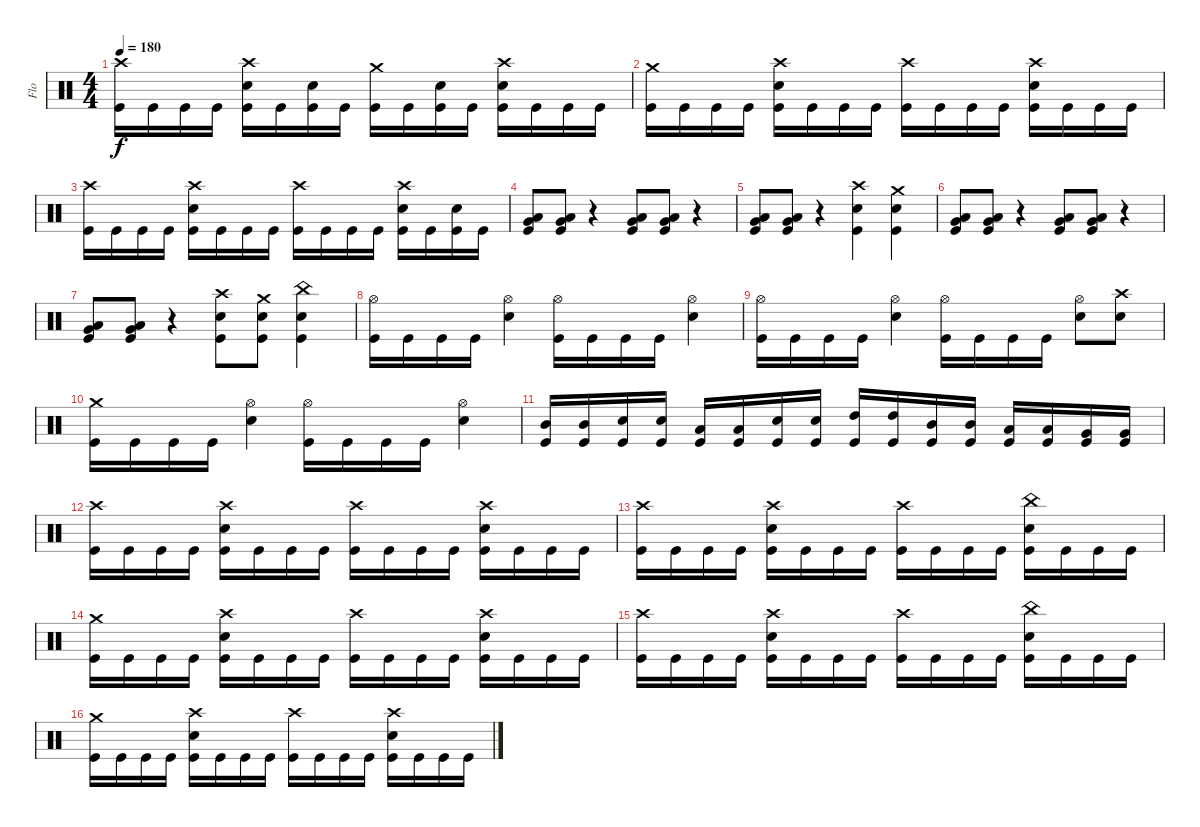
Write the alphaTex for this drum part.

\track ("Flo" "Flo") {instrument percussion}
\staff {score}
\articulation defaults
\ts (4 4)
\tempo 180
\clef neutral
\ks c
("Crash high (hit)" "Kick (hit)").16{dy f} "Kick (hit)".16 "Kick (hit)".16 "Kick (hit)".16 ("Crash high (hit)" "Snare (hit) 2" "Kick (hit)").16 "Kick (hit)".16 ("Snare (hit) 2" "Kick (hit)").16 "Kick (hit)".16 ("Crash medium (hit)" "Kick (hit)").16 "Kick (hit)".16 ("Snare (hit) 2" "Kick (hit)").16 "Kick (hit)".16 ("Crash high (hit)" "Snare (hit) 2" "Kick (hit)").16 "Kick (hit)".16 "Kick (hit)".16 "Kick (hit)".16 |
("Crash medium (hit)" "Kick (hit)").16 "Kick (hit)".16 "Kick (hit)".16 "Kick (hit)".16 ("Crash high (hit)" "Snare (hit) 2" "Kick (hit)").16 "Kick (hit)".16 "Kick (hit)".16 "Kick (hit)".16 ("Crash high (hit)" "Kick (hit)").16 "Kick (hit)".16 "Kick (hit)".16 "Kick (hit)".16 ("Crash high (hit)" "Snare (hit) 2" "Kick (hit)").16 "Kick (hit)".16 "Kick (hit)".16 "Kick (hit)".16 |
("Crash high (hit)" "Kick (hit)").16 "Kick (hit)".16 "Kick (hit)".16 "Kick (hit)".16 ("Crash high (hit)" "Snare (hit) 2" "Kick (hit)").16 "Kick (hit)".16 "Kick (hit)".16 "Kick (hit)".16 ("Crash high (hit)" "Kick (hit)").16 "Kick (hit)".16 "Kick (hit)".16 "Kick (hit)".16 ("Crash high (hit)" "Snare (hit) 2" "Kick (hit)").16 "Kick (hit)".16 ("Snare (hit) 2" "Kick (hit)").16 "Kick (hit)".16 |
("Low Tom (hit)" "Very Low Tom (hit)" "Kick (hit)").8 ("Low Tom (hit)" "Very Low Tom (hit)" "Kick (hit)").8 r.4 ("Low Tom (hit)" "Very Low Tom (hit)" "Kick (hit)").8 ("Low Tom (hit)" "Very Low Tom (hit)" "Kick (hit)").8 r.4 |
("Low Tom (hit)" "Very Low Tom (hit)" "Kick (hit)").8 ("Low Tom (hit)" "Very Low Tom (hit)" "Kick (hit)").8 r.4 ("Crash high (hit)" "Snare (hit) 2" "Kick (hit)").4 ("Crash medium (hit)" "Snare (hit) 2" "Kick (hit)").4 |
("Low Tom (hit)" "Very Low Tom (hit)" "Kick (hit)").8 ("Low Tom (hit)" "Very Low Tom (hit)" "Kick (hit)").8 r.4 ("Low Tom (hit)" "Very Low Tom (hit)" "Kick (hit)").8 ("Low Tom (hit)" "Very Low Tom (hit)" "Kick (hit)").8 r.4 |
("Low Tom (hit)" "Very Low Tom (hit)" "Kick (hit)").8 ("Low Tom (hit)" "Very Low Tom (hit)" "Kick (hit)").8 r.4 ("Crash high (hit)" "Snare (hit) 2" "Kick (hit)").8 ("Crash medium (hit)" "Snare (hit) 2" "Kick (hit)").8 ("China (hit)" "Snare (hit) 2" "Kick (hit)").4 |
("Hi-Hat (open)" "Kick (hit)").16 "Kick (hit)".16 "Kick (hit)".16 "Kick (hit)".16 ("Hi-Hat (open)" "Snare (hit) 2").4 ("Hi-Hat (open)" "Kick (hit)").16 "Kick (hit)".16 "Kick (hit)".16 "Kick (hit)".16 ("Hi-Hat (open)" "Snare (hit) 2").4 |
("Hi-Hat (open)" "Kick (hit)").16 "Kick (hit)".16 "Kick (hit)".16 "Kick (hit)".16 ("Hi-Hat (open)" "Snare (hit) 2").4 ("Hi-Hat (open)" "Kick (hit)").16 "Kick (hit)".16 "Kick (hit)".16 "Kick (hit)".16 ("Hi-Hat (open)" "Snare (hit) 2").8 ("Crash high (hit)" "Snare (hit) 2").8 |
("Crash medium (hit)" "Kick (hit)").16 "Kick (hit)".16 "Kick (hit)".16 "Kick (hit)".16 ("Hi-Hat (open)" "Snare (hit) 2").4 ("Hi-Hat (open)" "Kick (hit)").16 "Kick (hit)".16 "Kick (hit)".16 "Kick (hit)".16 ("Hi-Hat (open)" "Snare (hit) 2").4 |
("Mid Tom (hit)" "Kick (hit)").16 ("Mid Tom (hit)" "Kick (hit)").16 ("Snare (hit) 2" "Kick (hit)").16 ("Snare (hit) 2" "Kick (hit)").16 ("Low Tom (hit)" "Kick (hit)").16 ("Low Tom (hit)" "Kick (hit)").16 ("Snare (hit) 2" "Kick (hit)").16 ("Snare (hit) 2" "Kick (hit)").16 ("High Tom (hit)" "Kick (hit)").16 ("High Tom (hit)" "Kick (hit)").16 ("Mid Tom (hit)" "Kick (hit)").16 ("Mid Tom (hit)" "Kick (hit)").16 ("Low Tom (hit)" "Kick (hit)").16 ("Low Tom (hit)" "Kick (hit)").16 ("Very Low Tom (hit)" "Kick (hit)").16 ("Very Low Tom (hit)" "Kick (hit)").16 |
("Crash high (hit)" "Kick (hit)").16 "Kick (hit)".16 "Kick (hit)".16 "Kick (hit)".16 ("Crash high (hit)" "Snare (hit) 2" "Kick (hit)").16 "Kick (hit)".16 "Kick (hit)".16 "Kick (hit)".16 ("Crash high (hit)" "Kick (hit)").16 "Kick (hit)".16 "Kick (hit)".16 "Kick (hit)".16 ("Crash high (hit)" "Snare (hit) 2" "Kick (hit)").16 "Kick (hit)".16 "Kick (hit)".16 "Kick (hit)".16 |
("Crash high (hit)" "Kick (hit)").16 "Kick (hit)".16 "Kick (hit)".16 "Kick (hit)".16 ("Crash high (hit)" "Snare (hit) 2" "Kick (hit)").16 "Kick (hit)".16 "Kick (hit)".16 "Kick (hit)".16 ("Crash high (hit)" "Kick (hit)").16 "Kick (hit)".16 "Kick (hit)".16 "Kick (hit)".16 ("China (hit)" "Snare (hit) 2" "Kick (hit)").16 "Kick (hit)".16 "Kick (hit)".16 "Kick (hit)".16 |
("Crash medium (hit)" "Kick (hit)").16 "Kick (hit)".16 "Kick (hit)".16 "Kick (hit)".16 ("Crash high (hit)" "Snare (hit) 2" "Kick (hit)").16 "Kick (hit)".16 "Kick (hit)".16 "Kick (hit)".16 ("Crash high (hit)" "Kick (hit)").16 "Kick (hit)".16 "Kick (hit)".16 "Kick (hit)".16 ("Crash high (hit)" "Snare (hit) 2" "Kick (hit)").16 "Kick (hit)".16 "Kick (hit)".16 "Kick (hit)".16 |
("Crash high (hit)" "Kick (hit)").16 "Kick (hit)".16 "Kick (hit)".16 "Kick (hit)".16 ("Crash high (hit)" "Snare (hit) 2" "Kick (hit)").16 "Kick (hit)".16 "Kick (hit)".16 "Kick (hit)".16 ("Crash high (hit)" "Kick (hit)").16 "Kick (hit)".16 "Kick (hit)".16 "Kick (hit)".16 ("China (hit)" "Snare (hit) 2" "Kick (hit)").16 "Kick (hit)".16 "Kick (hit)".16 "Kick (hit)".16 |
("Crash medium (hit)" "Kick (hit)").16 "Kick (hit)".16 "Kick (hit)".16 "Kick (hit)".16 ("Crash high (hit)" "Snare (hit) 2" "Kick (hit)").16 "Kick (hit)".16 "Kick (hit)".16 "Kick (hit)".16 ("Crash high (hit)" "Kick (hit)").16 "Kick (hit)".16 "Kick (hit)".16 "Kick (hit)".16 ("Crash high (hit)" "Snare (hit) 2" "Kick (hit)").16 "Kick (hit)".16 "Kick (hit)".16 "Kick (hit)".16
